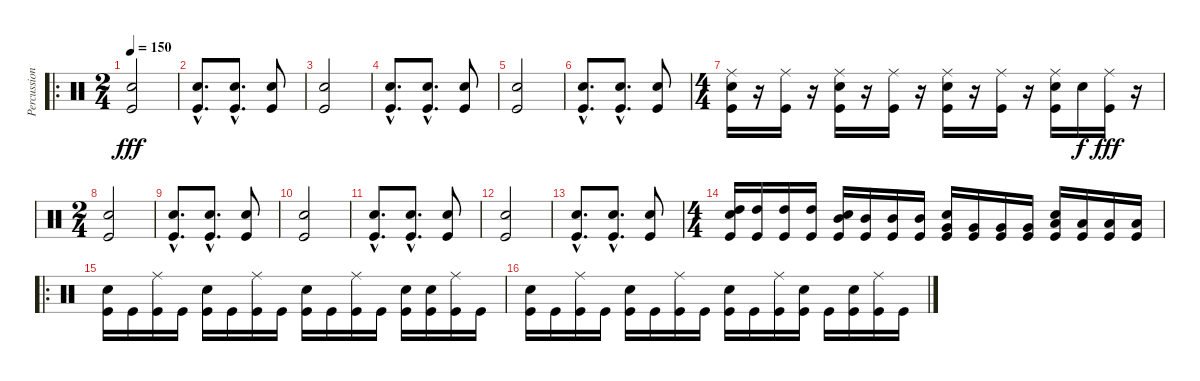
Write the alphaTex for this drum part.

\track ("Percussions" "Percussion") {instrument percussion}
\staff {score}
\articulation defaults
\ro
\ts (2 4)
\tempo 150
\clef neutral
\ks c
("Snare (hit) 2" "Kick (hit)").2{dy fff} |
("Snare (hit) 2"{hac} "Kick (hit)"{hac}).8{d} ("Snare (hit) 2"{hac} "Kick (hit)"{hac}).8{d} ("Snare (hit) 2" "Kick (hit)").8 |
("Snare (hit) 2" "Kick (hit)").2 |
("Snare (hit) 2"{hac} "Kick (hit)"{hac}).8{d} ("Snare (hit) 2"{hac} "Kick (hit)"{hac}).8{d} ("Snare (hit) 2" "Kick (hit)").8 |
("Snare (hit) 2" "Kick (hit)").2 |
("Snare (hit) 2"{hac} "Kick (hit)"{hac}).8{d} ("Snare (hit) 2"{hac} "Kick (hit)"{hac}).8{d} ("Snare (hit) 2" "Kick (hit)").8 |
\ts (4 4)
("Ride (middle)" "Snare (hit) 2" "Kick (hit)").16 r.16 ("Ride (middle)" "Kick (hit)").16 r.16 ("Ride (middle)" "Snare (hit) 2" "Kick (hit)").16 r.16 ("Ride (middle)" "Kick (hit)").16 r.16 ("Ride (middle)" "Snare (hit) 2" "Kick (hit)").16 r.16 ("Ride (middle)" "Kick (hit)").16 r.16 ("Ride (middle)" "Snare (hit) 2" "Kick (hit)").16 "Snare (hit) 2".16{dy f} ("Ride (middle)" "Kick (hit)").16{dy fff} r.16 |
\ts (2 4)
("Snare (hit) 2" "Kick (hit)").2 |
("Snare (hit) 2"{hac} "Kick (hit)"{hac}).8{d} ("Snare (hit) 2"{hac} "Kick (hit)"{hac}).8{d} ("Snare (hit) 2" "Kick (hit)").8 |
("Snare (hit) 2" "Kick (hit)").2 |
("Snare (hit) 2"{hac} "Kick (hit)"{hac}).8{d} ("Snare (hit) 2"{hac} "Kick (hit)"{hac}).8{d} ("Snare (hit) 2" "Kick (hit)").8 |
("Snare (hit) 2" "Kick (hit)").2 |
("Snare (hit) 2"{hac} "Kick (hit)"{hac}).8{d} ("Snare (hit) 2"{hac} "Kick (hit)"{hac}).8{d} ("Snare (hit) 2" "Kick (hit)").8 |
\ts (4 4)
("High Tom (hit)" "Snare (hit) 2" "Kick (hit)").16 ("High Tom (hit)" "Kick (hit)").16 ("High Tom (hit)" "Kick (hit)").16 ("High Tom (hit)" "Kick (hit)").16 ("Mid Tom (hit)" "Snare (hit) 2" "Kick (hit)").16 ("Mid Tom (hit)" "Kick (hit)").16 ("Mid Tom (hit)" "Kick (hit)").16 ("Mid Tom (hit)" "Kick (hit)").16 ("Very Low Tom (hit)" "Snare (hit) 2" "Kick (hit)").16 ("Very Low Tom (hit)" "Kick (hit)").16 ("Very Low Tom (hit)" "Kick (hit)").16 ("Very Low Tom (hit)" "Kick (hit)").16 ("Low Floor Tom (hit)" "Snare (hit) 2" "Kick (hit)").16 ("Low Floor Tom (hit)" "Kick (hit)").16 ("Low Floor Tom (hit)" "Kick (hit)").16 ("Low Floor Tom (hit)" "Kick (hit)").16 |
\ro
("Snare (hit) 2" "Kick (hit)").16 "Kick (hit)".16 ("Ride (middle)" "Kick (hit)").16 "Kick (hit)".16 ("Snare (hit) 2" "Kick (hit)").16 "Kick (hit)".16 ("Ride (middle)" "Kick (hit)").16 "Kick (hit)".16 ("Snare (hit) 2" "Kick (hit)").16 "Kick (hit)".16 ("Ride (middle)" "Kick (hit)").16 "Kick (hit)".16 ("Snare (hit) 2" "Kick (hit)").16 ("Snare (hit) 2" "Kick (hit)").16 ("Ride (middle)" "Kick (hit)").16 "Kick (hit)".16 |
("Snare (hit) 2" "Kick (hit)").16 "Kick (hit)".16 ("Ride (middle)" "Kick (hit)").16 "Kick (hit)".16 ("Snare (hit) 2" "Kick (hit)").16 "Kick (hit)".16 ("Ride (middle)" "Kick (hit)").16 "Kick (hit)".16 ("Snare (hit) 2" "Kick (hit)").16 "Kick (hit)".16 ("Ride (middle)" "Kick (hit)").16 ("Snare (hit) 2" "Kick (hit)").16 "Kick (hit)".16 ("Snare (hit) 2" "Kick (hit)").16 ("Ride (middle)" "Kick (hit)").16 "Kick (hit)".16
